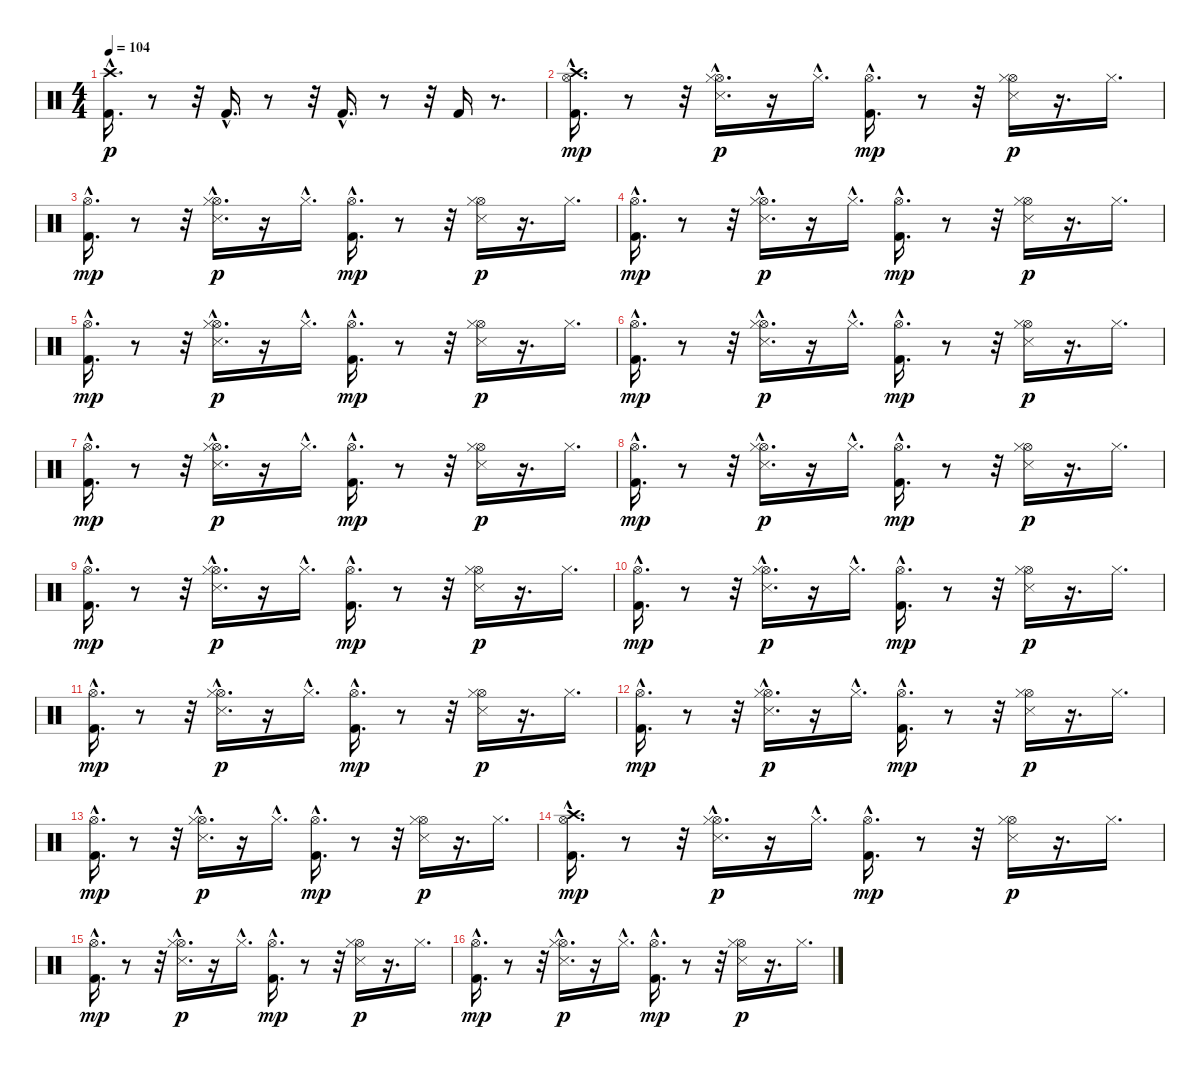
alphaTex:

\track "" {instrument percussion}
\staff {score}
\articulation defaults
\ts (4 4)
\tempo 104
\clef neutral
\ks c
("Kick (hit) 2"{hac} "Crash high (hit)"{hac}).16{d dy p} r.8 r.32 "Kick (hit) 2"{hac}.16{d} r.8 r.32 "Kick (hit) 2"{hac}.16{d} r.8 r.32 "Kick (hit) 2".16 r.8{d} |
("Crash high (hit)"{hac} "Hi-Hat (open)"{hac} "Kick (hit) 2"{hac}).16{d dy mp} r.8 r.32 ("Snare (side stick) 3"{hac} "Hi-Hat (open)"{hac} "Hi-Hat (closed)"{hac}).16{d dy p} r.16 "Hi-Hat (closed)"{hac}.16{d} ("Hi-Hat (open)"{hac} "Kick (hit) 2"{hac}).16{d dy mp} r.8 r.32 ("Snare (side stick) 3" "Hi-Hat (open)" "Hi-Hat (closed)").16{dy p} r.16{d} "Hi-Hat (closed)".16{d} |
("Hi-Hat (open)"{hac} "Kick (hit) 2"{hac}).16{d dy mp} r.8 r.32 ("Snare (side stick) 3"{hac} "Hi-Hat (open)"{hac} "Hi-Hat (closed)"{hac}).16{d dy p} r.16 "Hi-Hat (closed)"{hac}.16{d} ("Hi-Hat (open)"{hac} "Kick (hit) 2"{hac}).16{d dy mp} r.8 r.32 ("Snare (side stick) 3" "Hi-Hat (open)" "Hi-Hat (closed)").16{dy p} r.16{d} "Hi-Hat (closed)".16{d} |
("Hi-Hat (open)"{hac} "Kick (hit) 2"{hac}).16{d dy mp} r.8 r.32 ("Snare (side stick) 3"{hac} "Hi-Hat (open)"{hac} "Hi-Hat (closed)"{hac}).16{d dy p} r.16 "Hi-Hat (closed)"{hac}.16{d} ("Hi-Hat (open)"{hac} "Kick (hit) 2"{hac}).16{d dy mp} r.8 r.32 ("Snare (side stick) 3" "Hi-Hat (open)" "Hi-Hat (closed)").16{dy p} r.16{d} "Hi-Hat (closed)".16{d} |
("Hi-Hat (open)"{hac} "Kick (hit) 2"{hac}).16{d dy mp} r.8 r.32 ("Snare (side stick) 3"{hac} "Hi-Hat (open)"{hac} "Hi-Hat (closed)"{hac}).16{d dy p} r.16 "Hi-Hat (closed)"{hac}.16{d} ("Hi-Hat (open)"{hac} "Kick (hit) 2"{hac}).16{d dy mp} r.8 r.32 ("Snare (side stick) 3" "Hi-Hat (open)" "Hi-Hat (closed)").16{dy p} r.16{d} "Hi-Hat (closed)".16{d} |
("Hi-Hat (open)"{hac} "Kick (hit) 2"{hac}).16{d dy mp} r.8 r.32 ("Snare (side stick) 3"{hac} "Hi-Hat (open)"{hac} "Hi-Hat (closed)"{hac}).16{d dy p} r.16 "Hi-Hat (closed)"{hac}.16{d} ("Hi-Hat (open)"{hac} "Kick (hit) 2"{hac}).16{d dy mp} r.8 r.32 ("Snare (side stick) 3" "Hi-Hat (open)" "Hi-Hat (closed)").16{dy p} r.16{d} "Hi-Hat (closed)".16{d} |
("Hi-Hat (open)"{hac} "Kick (hit) 2"{hac}).16{d dy mp} r.8 r.32 ("Snare (side stick) 3"{hac} "Hi-Hat (open)"{hac} "Hi-Hat (closed)"{hac}).16{d dy p} r.16 "Hi-Hat (closed)"{hac}.16{d} ("Hi-Hat (open)"{hac} "Kick (hit) 2"{hac}).16{d dy mp} r.8 r.32 ("Snare (side stick) 3" "Hi-Hat (open)" "Hi-Hat (closed)").16{dy p} r.16{d} "Hi-Hat (closed)".16{d} |
("Hi-Hat (open)"{hac} "Kick (hit) 2"{hac}).16{d dy mp} r.8 r.32 ("Snare (side stick) 3"{hac} "Hi-Hat (open)"{hac} "Hi-Hat (closed)"{hac}).16{d dy p} r.16 "Hi-Hat (closed)"{hac}.16{d} ("Hi-Hat (open)"{hac} "Kick (hit) 2"{hac}).16{d dy mp} r.8 r.32 ("Snare (side stick) 3" "Hi-Hat (open)" "Hi-Hat (closed)").16{dy p} r.16{d} "Hi-Hat (closed)".16{d} |
("Hi-Hat (open)"{hac} "Kick (hit) 2"{hac}).16{d dy mp} r.8 r.32 ("Snare (side stick) 3"{hac} "Hi-Hat (open)"{hac} "Hi-Hat (closed)"{hac}).16{d dy p} r.16 "Hi-Hat (closed)"{hac}.16{d} ("Hi-Hat (open)"{hac} "Kick (hit) 2"{hac}).16{d dy mp} r.8 r.32 ("Snare (side stick) 3" "Hi-Hat (open)" "Hi-Hat (closed)").16{dy p} r.16{d} "Hi-Hat (closed)".16{d} |
("Hi-Hat (open)"{hac} "Kick (hit) 2"{hac}).16{d dy mp} r.8 r.32 ("Snare (side stick) 3"{hac} "Hi-Hat (open)"{hac} "Hi-Hat (closed)"{hac}).16{d dy p} r.16 "Hi-Hat (closed)"{hac}.16{d} ("Hi-Hat (open)"{hac} "Kick (hit) 2"{hac}).16{d dy mp} r.8 r.32 ("Snare (side stick) 3" "Hi-Hat (open)" "Hi-Hat (closed)").16{dy p} r.16{d} "Hi-Hat (closed)".16{d} |
("Hi-Hat (open)"{hac} "Kick (hit) 2"{hac}).16{d dy mp} r.8 r.32 ("Snare (side stick) 3"{hac} "Hi-Hat (open)"{hac} "Hi-Hat (closed)"{hac}).16{d dy p} r.16 "Hi-Hat (closed)"{hac}.16{d} ("Hi-Hat (open)"{hac} "Kick (hit) 2"{hac}).16{d dy mp} r.8 r.32 ("Snare (side stick) 3" "Hi-Hat (open)" "Hi-Hat (closed)").16{dy p} r.16{d} "Hi-Hat (closed)".16{d} |
("Hi-Hat (open)"{hac} "Kick (hit) 2"{hac}).16{d dy mp} r.8 r.32 ("Snare (side stick) 3"{hac} "Hi-Hat (open)"{hac} "Hi-Hat (closed)"{hac}).16{d dy p} r.16 "Hi-Hat (closed)"{hac}.16{d} ("Hi-Hat (open)"{hac} "Kick (hit) 2"{hac}).16{d dy mp} r.8 r.32 ("Snare (side stick) 3" "Hi-Hat (open)" "Hi-Hat (closed)").16{dy p} r.16{d} "Hi-Hat (closed)".16{d} |
("Hi-Hat (open)"{hac} "Kick (hit) 2"{hac}).16{d dy mp} r.8 r.32 ("Snare (side stick) 3"{hac} "Hi-Hat (open)"{hac} "Hi-Hat (closed)"{hac}).16{d dy p} r.16 "Hi-Hat (closed)"{hac}.16{d} ("Hi-Hat (open)"{hac} "Kick (hit) 2"{hac}).16{d dy mp} r.8 r.32 ("Snare (side stick) 3" "Hi-Hat (open)" "Hi-Hat (closed)").16{dy p} r.16{d} "Hi-Hat (closed)".16{d} |
("Crash high (hit)"{hac} "Hi-Hat (open)"{hac} "Kick (hit) 2"{hac}).16{d dy mp} r.8 r.32 ("Snare (side stick) 3"{hac} "Hi-Hat (open)"{hac} "Hi-Hat (closed)"{hac}).16{d dy p} r.16 "Hi-Hat (closed)"{hac}.16{d} ("Hi-Hat (open)"{hac} "Kick (hit) 2"{hac}).16{d dy mp} r.8 r.32 ("Snare (side stick) 3" "Hi-Hat (open)" "Hi-Hat (closed)").16{dy p} r.16{d} "Hi-Hat (closed)".16{d} |
("Hi-Hat (open)"{hac} "Kick (hit) 2"{hac}).16{d dy mp} r.8 r.32 ("Snare (side stick) 3"{hac} "Hi-Hat (open)"{hac} "Hi-Hat (closed)"{hac}).16{d dy p} r.16 "Hi-Hat (closed)"{hac}.16{d} ("Hi-Hat (open)"{hac} "Kick (hit) 2"{hac}).16{d dy mp} r.8 r.32 ("Snare (side stick) 3" "Hi-Hat (open)" "Hi-Hat (closed)").16{dy p} r.16{d} "Hi-Hat (closed)".16{d} |
("Hi-Hat (open)"{hac} "Kick (hit) 2"{hac}).16{d dy mp} r.8 r.32 ("Snare (side stick) 3"{hac} "Hi-Hat (open)"{hac} "Hi-Hat (closed)"{hac}).16{d dy p} r.16 "Hi-Hat (closed)"{hac}.16{d} ("Hi-Hat (open)"{hac} "Kick (hit) 2"{hac}).16{d dy mp} r.8 r.32 ("Snare (side stick) 3" "Hi-Hat (open)" "Hi-Hat (closed)").16{dy p} r.16{d} "Hi-Hat (closed)".16{d}
